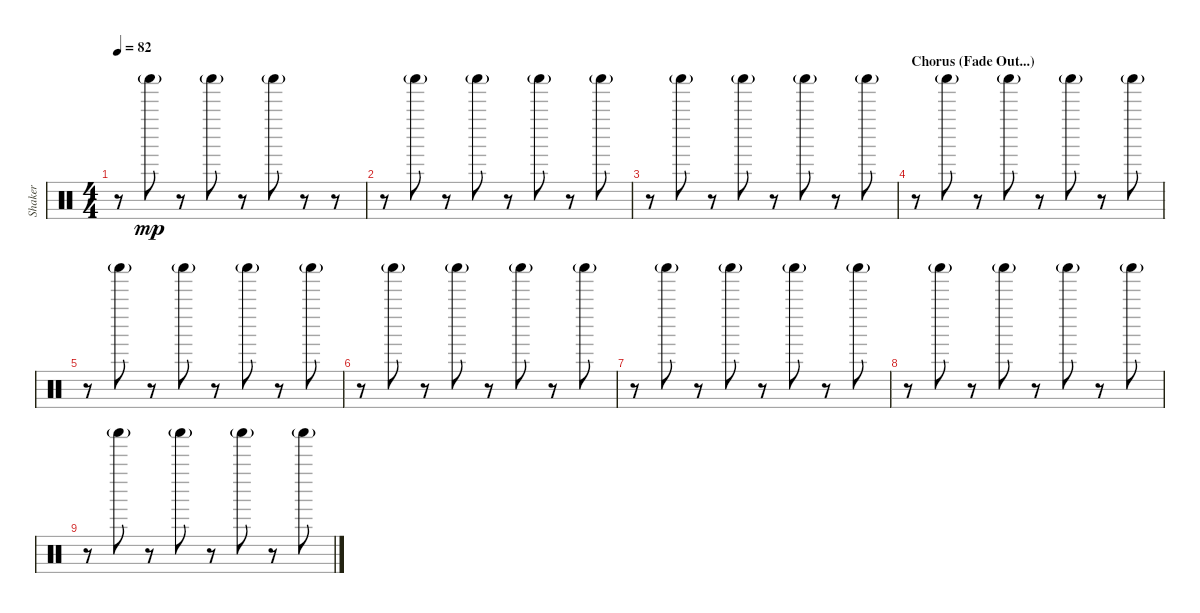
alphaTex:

\track ("Shaker" "Shaker") {instrument percussion}
\staff {score}
\articulation defaults
\ts (4 4)
\tempo 82
\clef neutral
\ks c
r.8{dy mp} "Shaker (hit)"{g}.8 r.8 "Shaker (hit)"{g}.8 r.8 "Shaker (hit)"{g}.8 r.8 r.8 |
\section ("" "")
r.8 "Shaker (hit)"{g}.8 r.8 "Shaker (hit)"{g}.8 r.8 "Shaker (hit)"{g}.8 r.8 "Shaker (hit)"{g}.8 |
r.8 "Shaker (hit)"{g}.8 r.8 "Shaker (hit)"{g}.8 r.8 "Shaker (hit)"{g}.8 r.8 "Shaker (hit)"{g}.8 |
\section ("" "Chorus (Fade Out...)")
r.8 "Shaker (hit)"{g}.8 r.8 "Shaker (hit)"{g}.8 r.8 "Shaker (hit)"{g}.8 r.8 "Shaker (hit)"{g}.8 |
r.8{volume 5} "Shaker (hit)"{g}.8 r.8 "Shaker (hit)"{g}.8 r.8 "Shaker (hit)"{g}.8 r.8 "Shaker (hit)"{g}.8 |
r.8 "Shaker (hit)"{g}.8 r.8 "Shaker (hit)"{g}.8 r.8 "Shaker (hit)"{g}.8 r.8 "Shaker (hit)"{g}.8 |
r.8{volume 0} "Shaker (hit)"{g}.8 r.8 "Shaker (hit)"{g}.8 r.8 "Shaker (hit)"{g}.8 r.8 "Shaker (hit)"{g}.8 |
r.8 "Shaker (hit)"{g}.8 r.8 "Shaker (hit)"{g}.8 r.8 "Shaker (hit)"{g}.8 r.8 "Shaker (hit)"{g}.8 |
r.8 "Shaker (hit)"{g}.8{volume 0} r.8 "Shaker (hit)"{g}.8 r.8 "Shaker (hit)"{g}.8 r.8 "Shaker (hit)"{g}.8
